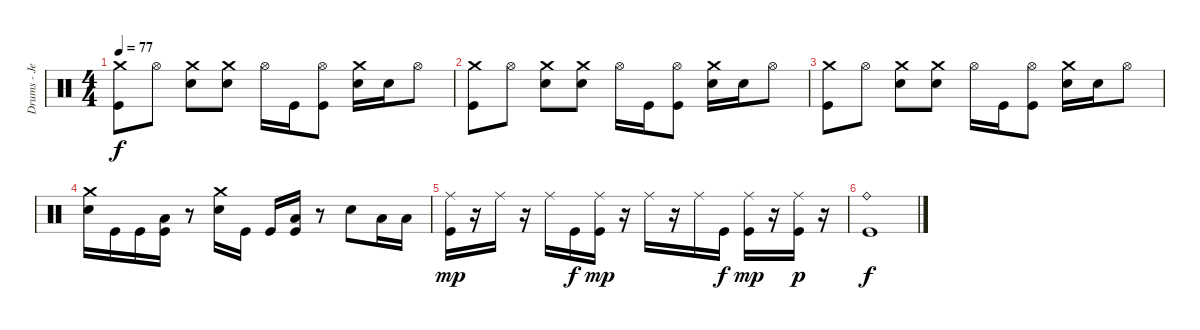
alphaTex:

\track ("Drums - Jeff" "Drums - Je") {instrument percussion}
\staff {score}
\articulation defaults
\ts (4 4)
\tempo 77
\clef neutral
\ks c
("Crash medium (hit)" "Kick (hit)").8{dy f} "Hi-Hat (open)".8 ("Crash medium (hit)" "Electric Snare (hit)").8 ("Crash medium (hit)" "Electric Snare (hit)").8 "Hi-Hat (open)".16 "Kick (hit)".16 ("Hi-Hat (open)" "Kick (hit)").8 ("Crash medium (hit)" "Electric Snare (hit)").16 "Electric Snare (hit)".16 "Hi-Hat (open)".8 |
("Crash medium (hit)" "Kick (hit)").8 "Hi-Hat (open)".8 ("Crash medium (hit)" "Electric Snare (hit)").8 ("Crash medium (hit)" "Electric Snare (hit)").8 "Hi-Hat (open)".16 "Kick (hit)".16 ("Hi-Hat (open)" "Kick (hit)").8 ("Crash medium (hit)" "Electric Snare (hit)").16 "Electric Snare (hit)".16 "Hi-Hat (open)".8 |
("Crash medium (hit)" "Kick (hit)").8 "Hi-Hat (open)".8 ("Crash medium (hit)" "Electric Snare (hit)").8 ("Crash medium (hit)" "Electric Snare (hit)").8 "Hi-Hat (open)".16 "Kick (hit)".16 ("Hi-Hat (open)" "Kick (hit)").8 ("Crash medium (hit)" "Electric Snare (hit)").16 "Electric Snare (hit)".16 "Hi-Hat (open)".8 |
("Crash medium (hit)" "Electric Snare (hit)").16 "Kick (hit)".16 "Kick (hit)".16 ("Low Tom (hit)" "Kick (hit)").16 r.8 ("Crash medium (hit)" "Electric Snare (hit)").16 "Kick (hit)".16 "Kick (hit)".16 ("Low Tom (hit)" "Kick (hit)").16 r.8 "Electric Snare (hit)".8 "Low Tom (hit)".16 "Low Tom (hit)".16 |
("Ride (middle)" "Kick (hit)").16{dy mp} r.16 "Ride (middle)".16 r.16 "Ride (middle)".16 "Kick (hit)".16{dy f} ("Ride (middle)" "Kick (hit)").16{dy mp} r.16 "Ride (middle)".16 r.16 "Ride (middle)".16 "Kick (hit)".16{dy f} ("Ride (middle)" "Kick (hit)").16{dy mp} r.16 ("Ride (middle)" "Kick (hit)").16{dy p} r.16 |
("Ride (bell)" "Kick (hit)").1{dy f}
